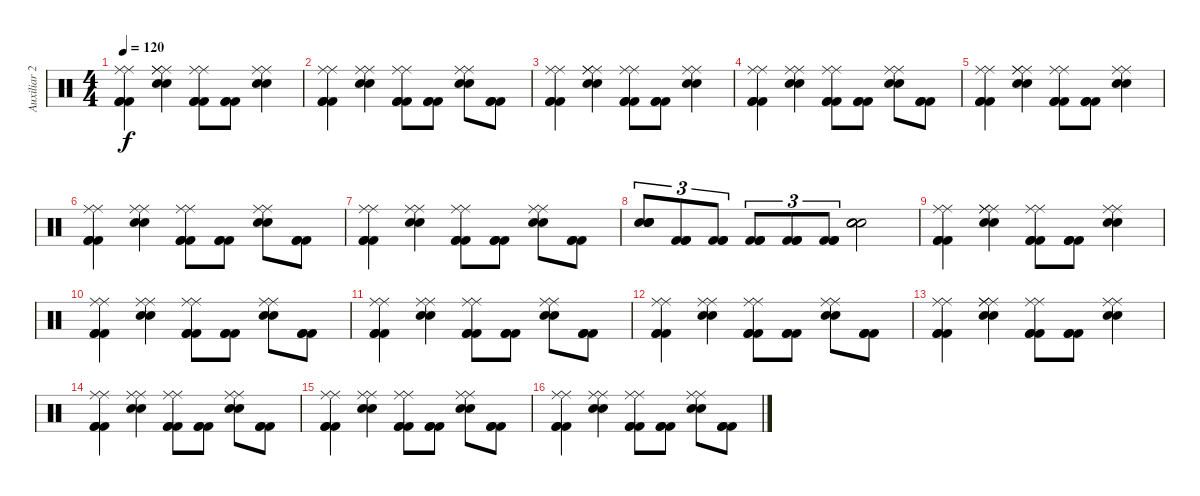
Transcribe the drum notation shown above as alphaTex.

\track ("Auxiliar 2" "Auxiliar 2") {instrument percussion}
\staff {score}
\articulation defaults
\ts (4 4)
\tempo 120
\clef neutral
\ks c
("Kick (hit) 2" "Kick (hit) 2" "Kick (hit) 2" "Ride (middle)" "Ride (middle)").4{dy f} ("Snare (hit) 2" "Snare (hit) 2" "Ride (middle)" "Ride (middle)" "Ride (middle)").4 ("Kick (hit) 2" "Kick (hit) 2" "Kick (hit) 2" "Ride (middle)" "Ride (middle)").8 ("Kick (hit) 2" "Kick (hit) 2" "Kick (hit) 2").8 ("Snare (hit) 2" "Snare (hit) 2" "Ride (middle)" "Ride (middle)").4 |
("Kick (hit) 2" "Kick (hit) 2" "Kick (hit) 2" "Ride (middle)" "Ride (middle)").4 ("Snare (hit) 2" "Snare (hit) 2" "Ride (middle)" "Ride (middle)").4 ("Kick (hit) 2" "Kick (hit) 2" "Kick (hit) 2" "Ride (middle)" "Ride (middle)").8 ("Kick (hit) 2" "Kick (hit) 2" "Kick (hit) 2").8 ("Snare (hit) 2" "Snare (hit) 2" "Ride (middle)" "Ride (middle)").8 ("Kick (hit) 2" "Kick (hit) 2" "Kick (hit) 2").8 |
("Kick (hit) 2" "Kick (hit) 2" "Kick (hit) 2" "Ride (middle)" "Ride (middle)").4 ("Snare (hit) 2" "Snare (hit) 2" "Ride (middle)" "Ride (middle)" "Ride (middle)").4 ("Kick (hit) 2" "Kick (hit) 2" "Kick (hit) 2" "Ride (middle)" "Ride (middle)").8 ("Kick (hit) 2" "Kick (hit) 2" "Kick (hit) 2").8 ("Snare (hit) 2" "Snare (hit) 2" "Ride (middle)" "Ride (middle)").4 |
("Kick (hit) 2" "Kick (hit) 2" "Kick (hit) 2" "Ride (middle)" "Ride (middle)").4 ("Snare (hit) 2" "Snare (hit) 2" "Ride (middle)" "Ride (middle)").4 ("Kick (hit) 2" "Kick (hit) 2" "Kick (hit) 2" "Ride (middle)" "Ride (middle)").8 ("Kick (hit) 2" "Kick (hit) 2" "Kick (hit) 2").8 ("Snare (hit) 2" "Snare (hit) 2" "Ride (middle)" "Ride (middle)").8 ("Kick (hit) 2" "Kick (hit) 2" "Kick (hit) 2").8 |
("Kick (hit) 2" "Kick (hit) 2" "Kick (hit) 2" "Ride (middle)" "Ride (middle)").4 ("Snare (hit) 2" "Snare (hit) 2" "Ride (middle)" "Ride (middle)" "Ride (middle)").4 ("Kick (hit) 2" "Kick (hit) 2" "Kick (hit) 2" "Ride (middle)" "Ride (middle)").8 ("Kick (hit) 2" "Kick (hit) 2" "Kick (hit) 2").8 ("Snare (hit) 2" "Snare (hit) 2" "Ride (middle)" "Ride (middle)").4 |
("Kick (hit) 2" "Kick (hit) 2" "Kick (hit) 2" "Ride (middle)" "Ride (middle)").4 ("Snare (hit) 2" "Snare (hit) 2" "Ride (middle)" "Ride (middle)").4 ("Kick (hit) 2" "Kick (hit) 2" "Kick (hit) 2" "Ride (middle)" "Ride (middle)").8 ("Kick (hit) 2" "Kick (hit) 2" "Kick (hit) 2").8 ("Snare (hit) 2" "Snare (hit) 2" "Ride (middle)" "Ride (middle)").8 ("Kick (hit) 2" "Kick (hit) 2" "Kick (hit) 2").8 |
("Kick (hit) 2" "Kick (hit) 2" "Kick (hit) 2" "Ride (middle)" "Ride (middle)").4 ("Snare (hit) 2" "Snare (hit) 2" "Ride (middle)" "Ride (middle)").4 ("Kick (hit) 2" "Kick (hit) 2" "Kick (hit) 2" "Ride (middle)" "Ride (middle)").8 ("Kick (hit) 2" "Kick (hit) 2" "Kick (hit) 2").8 ("Snare (hit) 2" "Snare (hit) 2" "Ride (middle)" "Ride (middle)").8 ("Kick (hit) 2" "Kick (hit) 2" "Kick (hit) 2").8 |
("Snare (hit) 2" "Snare (hit) 2" "Snare (hit) 2" "Snare (hit) 2").8{tu (3 2)} ("Kick (hit) 2" "Kick (hit) 2" "Kick (hit) 2").8{tu (3 2)} ("Kick (hit) 2" "Kick (hit) 2" "Kick (hit) 2").8{tu (3 2)} ("Kick (hit) 2" "Kick (hit) 2" "Kick (hit) 2").8{tu (3 2)} ("Kick (hit) 2" "Kick (hit) 2" "Kick (hit) 2").8{tu (3 2)} ("Kick (hit) 2" "Kick (hit) 2" "Kick (hit) 2").8{tu (3 2)} ("Snare (hit) 2" "Snare (hit) 2" "Snare (hit) 2" "Snare (hit) 2").2 |
("Kick (hit) 2" "Kick (hit) 2" "Kick (hit) 2" "Ride (middle)" "Ride (middle)").4 ("Snare (hit) 2" "Snare (hit) 2" "Ride (middle)" "Ride (middle)" "Ride (middle)").4 ("Kick (hit) 2" "Kick (hit) 2" "Kick (hit) 2" "Ride (middle)" "Ride (middle)").8 ("Kick (hit) 2" "Kick (hit) 2" "Kick (hit) 2").8 ("Snare (hit) 2" "Snare (hit) 2" "Ride (middle)" "Ride (middle)").4 |
("Kick (hit) 2" "Kick (hit) 2" "Kick (hit) 2" "Ride (middle)" "Ride (middle)").4 ("Snare (hit) 2" "Snare (hit) 2" "Ride (middle)" "Ride (middle)").4 ("Kick (hit) 2" "Kick (hit) 2" "Kick (hit) 2" "Ride (middle)" "Ride (middle)").8 ("Kick (hit) 2" "Kick (hit) 2" "Kick (hit) 2").8 ("Snare (hit) 2" "Snare (hit) 2" "Ride (middle)" "Ride (middle)").8 ("Kick (hit) 2" "Kick (hit) 2" "Kick (hit) 2").8 |
("Kick (hit) 2" "Kick (hit) 2" "Kick (hit) 2" "Ride (middle)" "Ride (middle)").4 ("Snare (hit) 2" "Snare (hit) 2" "Ride (middle)" "Ride (middle)").4 ("Kick (hit) 2" "Kick (hit) 2" "Kick (hit) 2" "Ride (middle)" "Ride (middle)").8 ("Kick (hit) 2" "Kick (hit) 2" "Kick (hit) 2").8 ("Snare (hit) 2" "Snare (hit) 2" "Ride (middle)" "Ride (middle)").8 ("Kick (hit) 2" "Kick (hit) 2" "Kick (hit) 2").8 |
("Kick (hit) 2" "Kick (hit) 2" "Kick (hit) 2" "Ride (middle)" "Ride (middle)").4 ("Snare (hit) 2" "Snare (hit) 2" "Ride (middle)" "Ride (middle)").4 ("Kick (hit) 2" "Kick (hit) 2" "Kick (hit) 2" "Ride (middle)" "Ride (middle)").8 ("Kick (hit) 2" "Kick (hit) 2" "Kick (hit) 2").8 ("Snare (hit) 2" "Snare (hit) 2" "Ride (middle)" "Ride (middle)").8 ("Kick (hit) 2" "Kick (hit) 2" "Kick (hit) 2").8 |
("Kick (hit) 2" "Kick (hit) 2" "Kick (hit) 2" "Ride (middle)" "Ride (middle)").4 ("Snare (hit) 2" "Snare (hit) 2" "Ride (middle)" "Ride (middle)" "Ride (middle)").4 ("Kick (hit) 2" "Kick (hit) 2" "Kick (hit) 2" "Ride (middle)" "Ride (middle)").8 ("Kick (hit) 2" "Kick (hit) 2" "Kick (hit) 2").8 ("Snare (hit) 2" "Snare (hit) 2" "Ride (middle)" "Ride (middle)").4 |
("Kick (hit) 2" "Kick (hit) 2" "Kick (hit) 2" "Ride (middle)" "Ride (middle)").4 ("Snare (hit) 2" "Snare (hit) 2" "Ride (middle)" "Ride (middle)").4 ("Kick (hit) 2" "Kick (hit) 2" "Kick (hit) 2" "Ride (middle)" "Ride (middle)").8 ("Kick (hit) 2" "Kick (hit) 2" "Kick (hit) 2").8 ("Snare (hit) 2" "Snare (hit) 2" "Ride (middle)" "Ride (middle)").8 ("Kick (hit) 2" "Kick (hit) 2" "Kick (hit) 2").8 |
("Kick (hit) 2" "Kick (hit) 2" "Kick (hit) 2" "Ride (middle)" "Ride (middle)").4 ("Snare (hit) 2" "Snare (hit) 2" "Ride (middle)" "Ride (middle)").4 ("Kick (hit) 2" "Kick (hit) 2" "Kick (hit) 2" "Ride (middle)" "Ride (middle)").8 ("Kick (hit) 2" "Kick (hit) 2" "Kick (hit) 2").8 ("Snare (hit) 2" "Snare (hit) 2" "Ride (middle)" "Ride (middle)").8 ("Kick (hit) 2" "Kick (hit) 2" "Kick (hit) 2").8 |
("Kick (hit) 2" "Kick (hit) 2" "Kick (hit) 2" "Ride (middle)" "Ride (middle)").4 ("Snare (hit) 2" "Snare (hit) 2" "Ride (middle)" "Ride (middle)").4 ("Kick (hit) 2" "Kick (hit) 2" "Kick (hit) 2" "Ride (middle)" "Ride (middle)").8 ("Kick (hit) 2" "Kick (hit) 2" "Kick (hit) 2").8 ("Snare (hit) 2" "Snare (hit) 2" "Ride (middle)" "Ride (middle)").8 ("Kick (hit) 2" "Kick (hit) 2" "Kick (hit) 2").8
